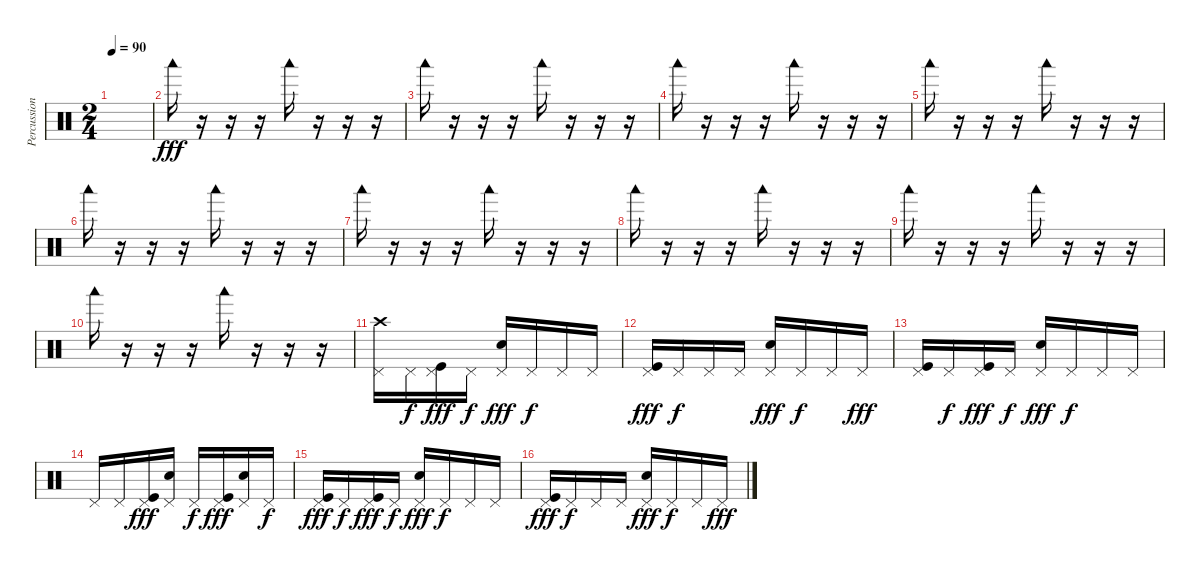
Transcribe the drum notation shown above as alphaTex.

\track ("Percussion" "Percussion") {instrument percussion}
\staff {score}
\articulation defaults
\ts (2 4)
\tempo 90
\clef neutral
\ks c
|
"Woodblock low (hit)".16{dy fff} r.16 r.16 r.16 "Woodblock low (hit)".16 r.16 r.16 r.16 |
"Woodblock low (hit)".16 r.16 r.16 r.16 "Woodblock low (hit)".16 r.16 r.16 r.16 |
"Woodblock low (hit)".16 r.16 r.16 r.16 "Woodblock low (hit)".16 r.16 r.16 r.16 |
"Woodblock low (hit)".16 r.16 r.16 r.16 "Woodblock low (hit)".16 r.16 r.16 r.16 |
"Woodblock low (hit)".16 r.16 r.16 r.16 "Woodblock low (hit)".16 r.16 r.16 r.16 |
"Woodblock low (hit)".16 r.16 r.16 r.16 "Woodblock low (hit)".16 r.16 r.16 r.16 |
"Woodblock low (hit)".16 r.16 r.16 r.16 "Woodblock low (hit)".16 r.16 r.16 r.16 |
"Woodblock low (hit)".16 r.16 r.16 r.16 "Woodblock low (hit)".16 r.16 r.16 r.16 |
"Woodblock low (hit)".16 r.16 r.16 r.16 "Woodblock low (hit)".16 r.16 r.16 r.16 |
("Crash high (hit)" "Pedal Hi-Hat (hit)").16 "Pedal Hi-Hat (hit)".16{dy f} ("Kick (hit)" "Pedal Hi-Hat (hit)").16{dy fff} "Pedal Hi-Hat (hit)".16{dy f} ("Electric Snare (hit)" "Pedal Hi-Hat (hit)").16{dy fff} "Pedal Hi-Hat (hit)".16{dy f} "Pedal Hi-Hat (hit)".16 "Pedal Hi-Hat (hit)".16 |
("Kick (hit)" "Pedal Hi-Hat (hit)").16{dy fff} "Pedal Hi-Hat (hit)".16{dy f} "Pedal Hi-Hat (hit)".16 "Pedal Hi-Hat (hit)".16 ("Electric Snare (hit)" "Pedal Hi-Hat (hit)").16{dy fff} "Pedal Hi-Hat (hit)".16{dy f} "Pedal Hi-Hat (hit)".16 "Pedal Hi-Hat (hit)".16{dy fff} |
("Kick (hit)" "Pedal Hi-Hat (hit)").16 "Pedal Hi-Hat (hit)".16{dy f} ("Kick (hit)" "Pedal Hi-Hat (hit)").16{dy fff} "Pedal Hi-Hat (hit)".16{dy f} ("Electric Snare (hit)" "Pedal Hi-Hat (hit)").16{dy fff} "Pedal Hi-Hat (hit)".16{dy f} "Pedal Hi-Hat (hit)".16 "Pedal Hi-Hat (hit)".16 |
"Pedal Hi-Hat (hit)".16 "Pedal Hi-Hat (hit)".16 ("Kick (hit)" "Pedal Hi-Hat (hit)").16{dy fff} ("Electric Snare (hit)" "Pedal Hi-Hat (hit)").16 "Pedal Hi-Hat (hit)".16{dy f} ("Kick (hit)" "Pedal Hi-Hat (hit)").16{dy fff} ("Electric Snare (hit)" "Pedal Hi-Hat (hit)").16 "Pedal Hi-Hat (hit)".16{dy f} |
("Kick (hit)" "Pedal Hi-Hat (hit)").16{dy fff} "Pedal Hi-Hat (hit)".16{dy f} ("Kick (hit)" "Pedal Hi-Hat (hit)").16{dy fff} "Pedal Hi-Hat (hit)".16{dy f} ("Electric Snare (hit)" "Pedal Hi-Hat (hit)").16{dy fff} "Pedal Hi-Hat (hit)".16{dy f} "Pedal Hi-Hat (hit)".16 "Pedal Hi-Hat (hit)".16 |
("Kick (hit)" "Pedal Hi-Hat (hit)").16{dy fff} "Pedal Hi-Hat (hit)".16{dy f} "Pedal Hi-Hat (hit)".16 "Pedal Hi-Hat (hit)".16 ("Electric Snare (hit)" "Pedal Hi-Hat (hit)").16{dy fff} "Pedal Hi-Hat (hit)".16{dy f} "Pedal Hi-Hat (hit)".16 "Pedal Hi-Hat (hit)".16{dy fff}
